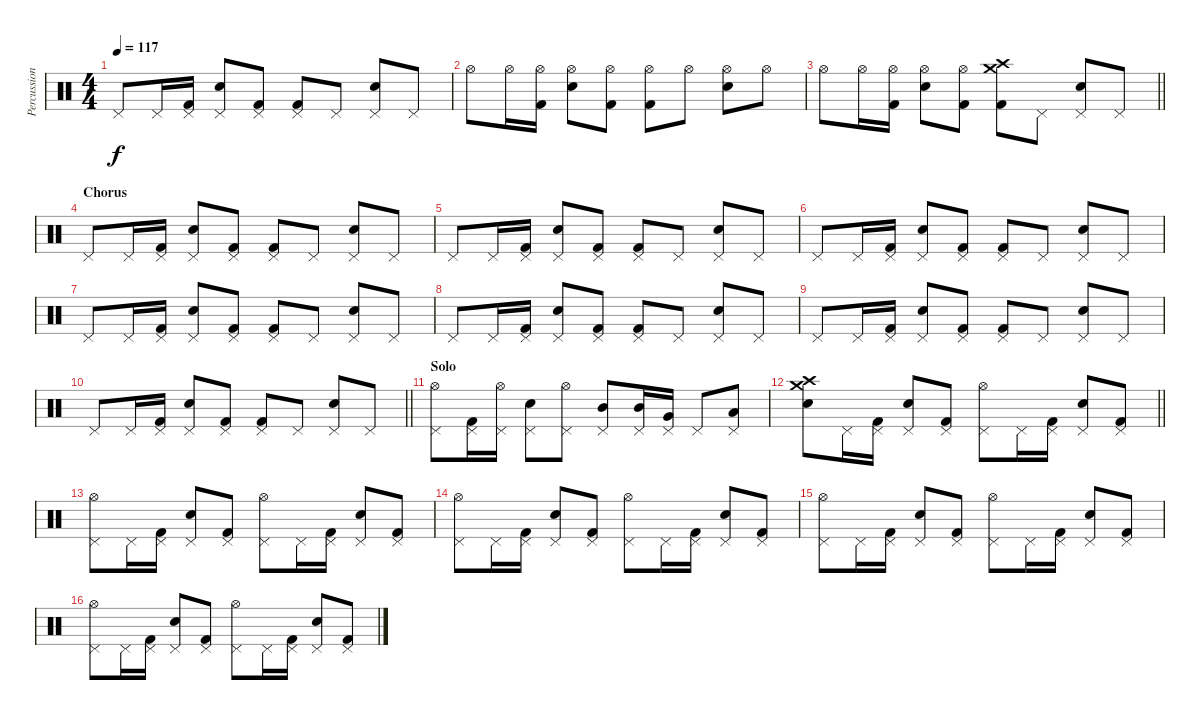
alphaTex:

\track ("Percussion" "Percussion") {instrument percussion}
\staff {score}
\articulation defaults
\ts (4 4)
\tempo 117
\clef neutral
\ks c "Pedal Hi-Hat (hit)".8{dy f} "Pedal Hi-Hat (hit)".16
("Pedal Hi-Hat (hit)" "Kick (hit) 2").16 ("Pedal Hi-Hat (hit)" "Electric Snare (hit)").8 ("Pedal Hi-Hat (hit)" "Kick (hit) 2").8 ("Pedal Hi-Hat (hit)" "Kick (hit) 2").8 "Pedal Hi-Hat (hit)".8 ("Pedal Hi-Hat (hit)" "Electric Snare (hit)").8 "Pedal Hi-Hat (hit)".8 |
"Hi-Hat (open)".8 "Hi-Hat (open)".16 ("Hi-Hat (open)" "Kick (hit) 2").16 ("Hi-Hat (open)" "Electric Snare (hit)").8 ("Hi-Hat (open)" "Kick (hit) 2").8 ("Hi-Hat (open)" "Kick (hit) 2").8 "Hi-Hat (open)".8 ("Hi-Hat (open)" "Electric Snare (hit)").8 "Hi-Hat (open)".8 |
\barLineRight lightlight "Hi-Hat (open)".8 "Hi-Hat (open)".16
("Hi-Hat (open)" "Kick (hit) 2").16 ("Hi-Hat (open)" "Electric Snare (hit)").8 ("Hi-Hat (open)" "Kick (hit) 2").8 ("Crash high (hit)" "Kick (hit) 2" "Crash medium (hit)").8 "Pedal Hi-Hat (hit)".8 ("Pedal Hi-Hat (hit)" "Electric Snare (hit)").8 "Pedal Hi-Hat (hit)".8 |
\section ("" "Chorus")
"Pedal Hi-Hat (hit)".8 "Pedal Hi-Hat (hit)".16 ("Pedal Hi-Hat (hit)" "Kick (hit) 2").16 ("Pedal Hi-Hat (hit)" "Electric Snare (hit)").8 ("Pedal Hi-Hat (hit)" "Kick (hit) 2").8 ("Pedal Hi-Hat (hit)" "Kick (hit) 2").8 "Pedal Hi-Hat (hit)".8 ("Pedal Hi-Hat (hit)" "Electric Snare (hit)").8 "Pedal Hi-Hat (hit)".8 |
"Pedal Hi-Hat (hit)".8 "Pedal Hi-Hat (hit)".16 ("Pedal Hi-Hat (hit)" "Kick (hit) 2").16 ("Pedal Hi-Hat (hit)" "Electric Snare (hit)").8 ("Pedal Hi-Hat (hit)" "Kick (hit) 2").8 ("Pedal Hi-Hat (hit)" "Kick (hit) 2").8 "Pedal Hi-Hat (hit)".8 ("Pedal Hi-Hat (hit)" "Electric Snare (hit)").8 "Pedal Hi-Hat (hit)".8 |
"Pedal Hi-Hat (hit)".8 "Pedal Hi-Hat (hit)".16 ("Pedal Hi-Hat (hit)" "Kick (hit) 2").16 ("Pedal Hi-Hat (hit)" "Electric Snare (hit)").8 ("Pedal Hi-Hat (hit)" "Kick (hit) 2").8 ("Pedal Hi-Hat (hit)" "Kick (hit) 2").8 "Pedal Hi-Hat (hit)".8 ("Pedal Hi-Hat (hit)" "Electric Snare (hit)").8 "Pedal Hi-Hat (hit)".8 |
"Pedal Hi-Hat (hit)".8 "Pedal Hi-Hat (hit)".16 ("Pedal Hi-Hat (hit)" "Kick (hit) 2").16 ("Pedal Hi-Hat (hit)" "Electric Snare (hit)").8 ("Pedal Hi-Hat (hit)" "Kick (hit) 2").8 ("Pedal Hi-Hat (hit)" "Kick (hit) 2").8 "Pedal Hi-Hat (hit)".8 ("Pedal Hi-Hat (hit)" "Electric Snare (hit)").8 "Pedal Hi-Hat (hit)".8 |
"Pedal Hi-Hat (hit)".8 "Pedal Hi-Hat (hit)".16 ("Pedal Hi-Hat (hit)" "Kick (hit) 2").16 ("Pedal Hi-Hat (hit)" "Electric Snare (hit)").8 ("Pedal Hi-Hat (hit)" "Kick (hit) 2").8 ("Pedal Hi-Hat (hit)" "Kick (hit) 2").8 "Pedal Hi-Hat (hit)".8 ("Pedal Hi-Hat (hit)" "Electric Snare (hit)").8 "Pedal Hi-Hat (hit)".8 |
"Pedal Hi-Hat (hit)".8 "Pedal Hi-Hat (hit)".16 ("Pedal Hi-Hat (hit)" "Kick (hit) 2").16 ("Pedal Hi-Hat (hit)" "Electric Snare (hit)").8 ("Pedal Hi-Hat (hit)" "Kick (hit) 2").8 ("Pedal Hi-Hat (hit)" "Kick (hit) 2").8 "Pedal Hi-Hat (hit)".8 ("Pedal Hi-Hat (hit)" "Electric Snare (hit)").8 "Pedal Hi-Hat (hit)".8 |
\barLineRight lightlight "Pedal Hi-Hat (hit)".8 "Pedal Hi-Hat (hit)".16
("Pedal Hi-Hat (hit)" "Kick (hit) 2").16 ("Pedal Hi-Hat (hit)" "Electric Snare (hit)").8 ("Pedal Hi-Hat (hit)" "Kick (hit) 2").8 ("Pedal Hi-Hat (hit)" "Kick (hit) 2").8 "Pedal Hi-Hat (hit)".8 ("Pedal Hi-Hat (hit)" "Electric Snare (hit)").8 "Pedal Hi-Hat (hit)".8 |
\section ("" "Solo")
("Pedal Hi-Hat (hit)" "Hi-Hat (open)").8 ("Pedal Hi-Hat (hit)" "Kick (hit) 2").16 ("Pedal Hi-Hat (hit)" "Hi-Hat (open)").16 ("Pedal Hi-Hat (hit)" "Electric Snare (hit)").8 ("Pedal Hi-Hat (hit)" "Hi-Hat (open)").8 ("Pedal Hi-Hat (hit)" "Mid Tom (hit)").8 ("Pedal Hi-Hat (hit)" "Mid Tom (hit)").16 ("Pedal Hi-Hat (hit)" "Very Low Tom (hit)").16 "Pedal Hi-Hat (hit)".8 ("Pedal Hi-Hat (hit)" "Low Floor Tom (hit)").8 |
\barLineRight lightlight
("Crash high (hit)" "Snare (hit) 2" "Crash medium (hit)").8 "Pedal Hi-Hat (hit)".16 ("Pedal Hi-Hat (hit)" "Kick (hit) 2").16 ("Pedal Hi-Hat (hit)" "Electric Snare (hit)").8 ("Pedal Hi-Hat (hit)" "Kick (hit) 2").8 ("Pedal Hi-Hat (hit)" "Hi-Hat (open)").8 "Pedal Hi-Hat (hit)".16 ("Pedal Hi-Hat (hit)" "Kick (hit) 2").16 ("Pedal Hi-Hat (hit)" "Electric Snare (hit)").8 ("Pedal Hi-Hat (hit)" "Kick (hit) 2").8 |
("Pedal Hi-Hat (hit)" "Hi-Hat (open)").8 "Pedal Hi-Hat (hit)".16 ("Pedal Hi-Hat (hit)" "Kick (hit) 2").16 ("Pedal Hi-Hat (hit)" "Electric Snare (hit)").8 ("Pedal Hi-Hat (hit)" "Kick (hit) 2").8 ("Pedal Hi-Hat (hit)" "Hi-Hat (open)").8 "Pedal Hi-Hat (hit)".16 ("Pedal Hi-Hat (hit)" "Kick (hit) 2").16 ("Pedal Hi-Hat (hit)" "Electric Snare (hit)").8 ("Pedal Hi-Hat (hit)" "Kick (hit) 2").8 |
("Pedal Hi-Hat (hit)" "Hi-Hat (open)").8 "Pedal Hi-Hat (hit)".16 ("Pedal Hi-Hat (hit)" "Kick (hit) 2").16 ("Pedal Hi-Hat (hit)" "Electric Snare (hit)").8 ("Pedal Hi-Hat (hit)" "Kick (hit) 2").8 ("Pedal Hi-Hat (hit)" "Hi-Hat (open)").8 "Pedal Hi-Hat (hit)".16 ("Pedal Hi-Hat (hit)" "Kick (hit) 2").16 ("Pedal Hi-Hat (hit)" "Electric Snare (hit)").8 ("Pedal Hi-Hat (hit)" "Kick (hit) 2").8 |
("Pedal Hi-Hat (hit)" "Hi-Hat (open)").8 "Pedal Hi-Hat (hit)".16 ("Pedal Hi-Hat (hit)" "Kick (hit) 2").16 ("Pedal Hi-Hat (hit)" "Electric Snare (hit)").8 ("Pedal Hi-Hat (hit)" "Kick (hit) 2").8 ("Pedal Hi-Hat (hit)" "Hi-Hat (open)").8 "Pedal Hi-Hat (hit)".16 ("Pedal Hi-Hat (hit)" "Kick (hit) 2").16 ("Pedal Hi-Hat (hit)" "Electric Snare (hit)").8 ("Pedal Hi-Hat (hit)" "Kick (hit) 2").8 |
("Pedal Hi-Hat (hit)" "Hi-Hat (open)").8 "Pedal Hi-Hat (hit)".16 ("Pedal Hi-Hat (hit)" "Kick (hit) 2").16 ("Pedal Hi-Hat (hit)" "Electric Snare (hit)").8 ("Pedal Hi-Hat (hit)" "Kick (hit) 2").8 ("Pedal Hi-Hat (hit)" "Hi-Hat (open)").8 "Pedal Hi-Hat (hit)".16 ("Pedal Hi-Hat (hit)" "Kick (hit) 2").16 ("Pedal Hi-Hat (hit)" "Electric Snare (hit)").8 ("Pedal Hi-Hat (hit)" "Kick (hit) 2").8
